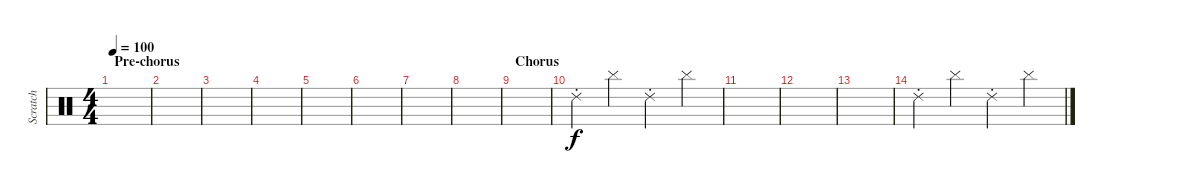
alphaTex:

\track ("Scratch" "Scratch") {instrument percussion}
\staff {score}
\articulation defaults
\ts (4 4)
\section ("" "Pre-chorus")
\tempo 100
\clef neutral
\ks c
|
|
|
|
|
|
|
|
\section ("" "Chorus")
|
"Ride (choke) 2".4 "Cymbal (hit)".4 "Ride (choke) 2".4 "Cymbal (hit)".4 |
|
|
|
"Ride (choke) 2".4 "Cymbal (hit)".4 "Ride (choke) 2".4 "Cymbal (hit)".4
